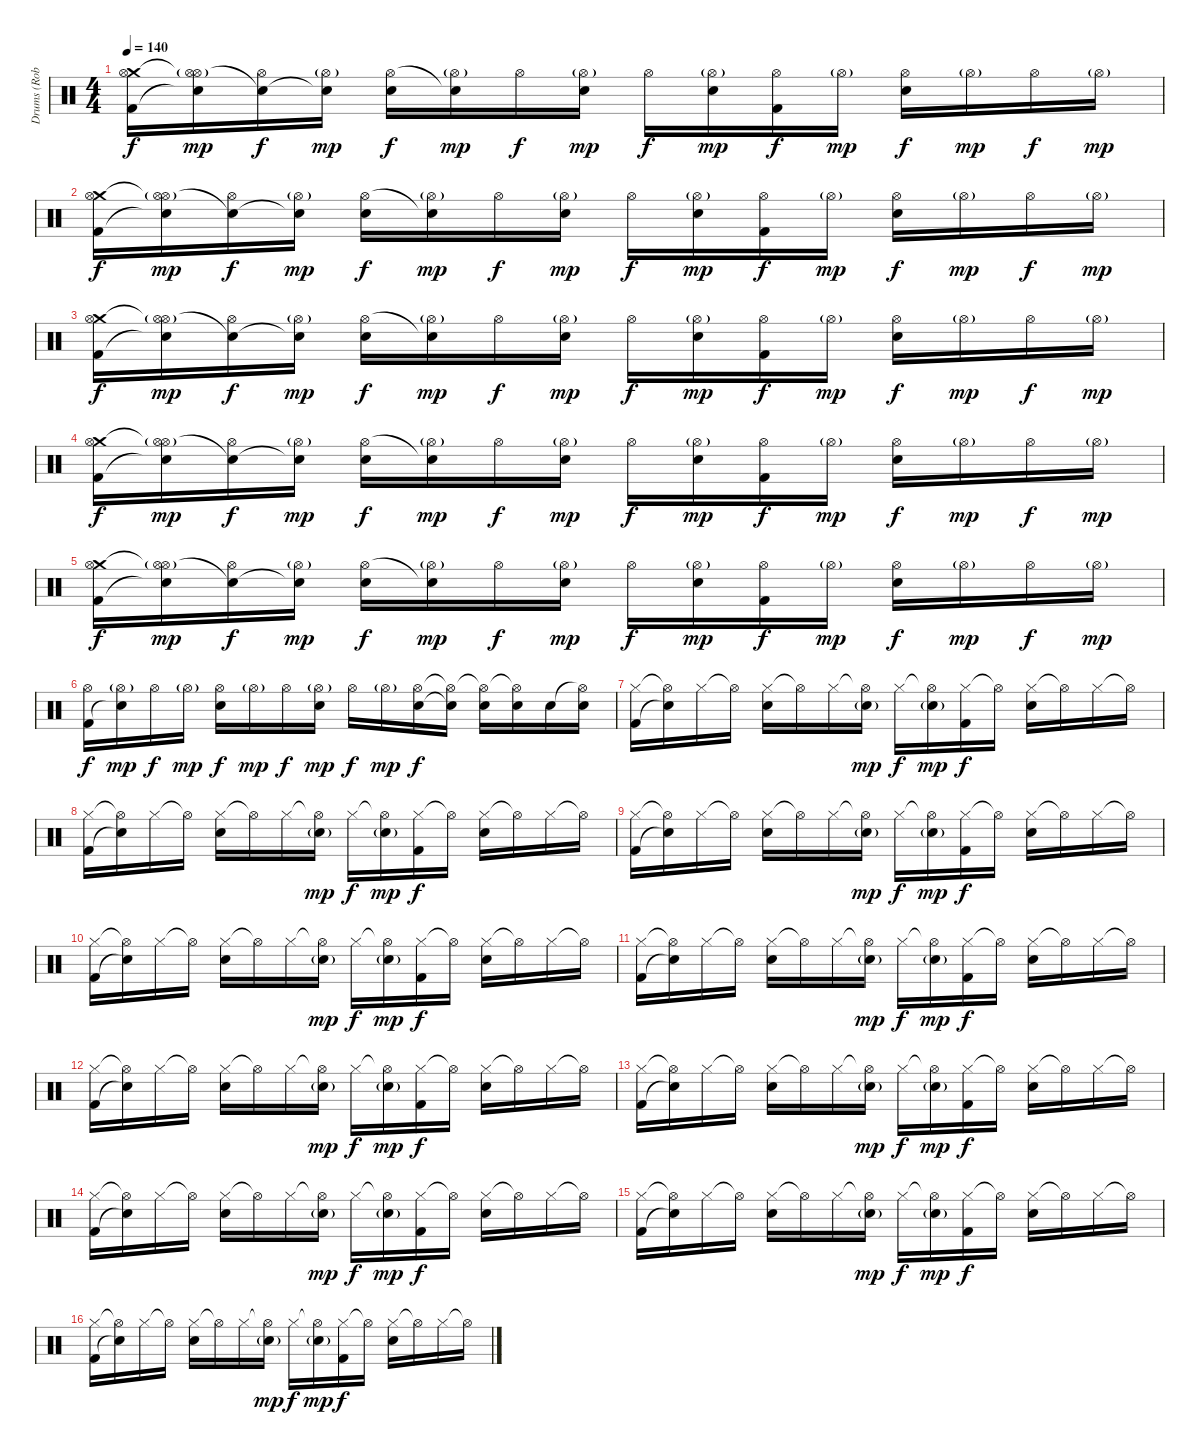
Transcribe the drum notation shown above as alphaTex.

\track ("Drums (Rob Bourdon)" "Drums (Rob") {instrument percussion}
\staff {score}
\articulation defaults
\ts (4 4)
\tempo 140
\clef neutral
\ks c
("Crash medium (hit)" "Hi-Hat (open)" "Kick (hit) 2").16{dy f volume 14} ("Hi-Hat (open)"{t} "Hi-Hat (open)"{g} "Snare (hit)"{t}).16{dy mp} ("Snare (hit)"{t} "Hi-Hat (open)").16{dy f} ("Snare (hit)"{t} "Hi-Hat (open)"{g}).16{dy mp} ("Hi-Hat (open)" "Electric Snare (hit)").16{dy f} ("Snare (hit)"{t} "Hi-Hat (open)"{g}).16{dy mp} "Hi-Hat (open)".16{dy f} ("Hi-Hat (open)"{g} "Electric Snare (hit)").16{dy mp} "Hi-Hat (open)".16{dy f} ("Hi-Hat (open)"{g} "Electric Snare (hit)").16{dy mp} ("Hi-Hat (open)" "Kick (hit) 2").16{dy f} "Hi-Hat (open)"{g}.16{dy mp} ("Hi-Hat (open)" "Electric Snare (hit)").16{dy f} "Hi-Hat (open)"{g}.16{dy mp} "Hi-Hat (open)".16{dy f} "Hi-Hat (open)"{g}.16{dy mp} |
("Crash medium (hit)" "Hi-Hat (open)" "Kick (hit) 2").16{dy f volume 14} ("Hi-Hat (open)"{t} "Hi-Hat (open)"{g} "Snare (hit)"{t}).16{dy mp} ("Snare (hit)"{t} "Hi-Hat (open)").16{dy f} ("Snare (hit)"{t} "Hi-Hat (open)"{g}).16{dy mp} ("Hi-Hat (open)" "Electric Snare (hit)").16{dy f} ("Snare (hit)"{t} "Hi-Hat (open)"{g}).16{dy mp} "Hi-Hat (open)".16{dy f} ("Hi-Hat (open)"{g} "Electric Snare (hit)").16{dy mp} "Hi-Hat (open)".16{dy f} ("Hi-Hat (open)"{g} "Electric Snare (hit)").16{dy mp} ("Hi-Hat (open)" "Kick (hit) 2").16{dy f} "Hi-Hat (open)"{g}.16{dy mp} ("Hi-Hat (open)" "Electric Snare (hit)").16{dy f} "Hi-Hat (open)"{g}.16{dy mp} "Hi-Hat (open)".16{dy f} "Hi-Hat (open)"{g}.16{dy mp} |
("Crash medium (hit)" "Hi-Hat (open)" "Kick (hit) 2").16{dy f volume 14} ("Hi-Hat (open)"{t} "Hi-Hat (open)"{g} "Snare (hit)"{t}).16{dy mp} ("Snare (hit)"{t} "Hi-Hat (open)").16{dy f} ("Snare (hit)"{t} "Hi-Hat (open)"{g}).16{dy mp} ("Hi-Hat (open)" "Electric Snare (hit)").16{dy f} ("Snare (hit)"{t} "Hi-Hat (open)"{g}).16{dy mp} "Hi-Hat (open)".16{dy f} ("Hi-Hat (open)"{g} "Electric Snare (hit)").16{dy mp} "Hi-Hat (open)".16{dy f} ("Hi-Hat (open)"{g} "Electric Snare (hit)").16{dy mp} ("Hi-Hat (open)" "Kick (hit) 2").16{dy f} "Hi-Hat (open)"{g}.16{dy mp} ("Hi-Hat (open)" "Electric Snare (hit)").16{dy f} "Hi-Hat (open)"{g}.16{dy mp} "Hi-Hat (open)".16{dy f} "Hi-Hat (open)"{g}.16{dy mp} |
("Crash medium (hit)" "Hi-Hat (open)" "Kick (hit) 2").16{dy f volume 14} ("Hi-Hat (open)"{t} "Hi-Hat (open)"{g} "Snare (hit)"{t}).16{dy mp} ("Snare (hit)"{t} "Hi-Hat (open)").16{dy f} ("Snare (hit)"{t} "Hi-Hat (open)"{g}).16{dy mp} ("Hi-Hat (open)" "Electric Snare (hit)").16{dy f} ("Snare (hit)"{t} "Hi-Hat (open)"{g}).16{dy mp} "Hi-Hat (open)".16{dy f} ("Hi-Hat (open)"{g} "Electric Snare (hit)").16{dy mp} "Hi-Hat (open)".16{dy f} ("Hi-Hat (open)"{g} "Electric Snare (hit)").16{dy mp} ("Hi-Hat (open)" "Kick (hit) 2").16{dy f} "Hi-Hat (open)"{g}.16{dy mp} ("Hi-Hat (open)" "Electric Snare (hit)").16{dy f} "Hi-Hat (open)"{g}.16{dy mp} "Hi-Hat (open)".16{dy f} "Hi-Hat (open)"{g}.16{dy mp} |
("Crash medium (hit)" "Hi-Hat (open)" "Kick (hit) 2").16{dy f volume 14} ("Hi-Hat (open)"{t} "Hi-Hat (open)"{g} "Snare (hit)"{t}).16{dy mp} ("Snare (hit)"{t} "Hi-Hat (open)").16{dy f} ("Snare (hit)"{t} "Hi-Hat (open)"{g}).16{dy mp} ("Hi-Hat (open)" "Electric Snare (hit)").16{dy f} ("Snare (hit)"{t} "Hi-Hat (open)"{g}).16{dy mp} "Hi-Hat (open)".16{dy f} ("Hi-Hat (open)"{g} "Electric Snare (hit)").16{dy mp} "Hi-Hat (open)".16{dy f} ("Hi-Hat (open)"{g} "Electric Snare (hit)").16{dy mp} ("Hi-Hat (open)" "Kick (hit) 2").16{dy f} "Hi-Hat (open)"{g}.16{dy mp} ("Hi-Hat (open)" "Electric Snare (hit)").16{dy f} "Hi-Hat (open)"{g}.16{dy mp} "Hi-Hat (open)".16{dy f} "Hi-Hat (open)"{g}.16{dy mp} |
("Hi-Hat (open)" "Kick (hit) 2").16{dy f volume 14} ("Hi-Hat (open)"{g} "Snare (hit)"{t}).16{dy mp} "Hi-Hat (open)".16{dy f} "Hi-Hat (open)"{g}.16{dy mp} ("Hi-Hat (open)" "Electric Snare (hit)").16{dy f} "Hi-Hat (open)"{g}.16{dy mp} "Hi-Hat (open)".16{dy f} ("Hi-Hat (open)"{g} "Electric Snare (hit)").16{dy mp} "Hi-Hat (open)".16{dy f} "Hi-Hat (open)"{g}.16{dy mp} ("Hi-Hat (open)" "Electric Snare (hit)").16{dy f} ("Hi-Hat (open)"{t} "Snare (hit)"{t}).16 ("Hi-Hat (open)"{t} "Electric Snare (hit)").16 ("Hi-Hat (open)"{t} "Electric Snare (hit)").16 "Electric Snare (hit)".16 ("Hi-Hat (open)"{t} "Electric Snare (hit)").16 |
("Hi-Hat (closed)" "Kick (hit) 2").16{volume 14} ("Hi-Hat (open)"{t} "Snare (hit)"{t}).16 "Hi-Hat (closed)".16 "Hi-Hat (open)"{t}.16 ("Hi-Hat (closed)" "Electric Snare (hit)").16 "Hi-Hat (open)"{t}.16 "Hi-Hat (closed)".16 ("Hi-Hat (open)"{t} "Electric Snare (hit)"{g}).16{dy mp} "Hi-Hat (closed)".16{dy f} ("Hi-Hat (open)"{t} "Electric Snare (hit)"{g}).16{dy mp} ("Hi-Hat (closed)" "Kick (hit) 2").16{dy f} "Hi-Hat (open)"{t}.16 ("Hi-Hat (closed)" "Electric Snare (hit)").16 "Hi-Hat (open)"{t}.16 "Hi-Hat (closed)".16 "Hi-Hat (open)"{t}.16 |
("Hi-Hat (closed)" "Kick (hit) 2").16{volume 14} ("Hi-Hat (open)"{t} "Snare (hit)"{t}).16 "Hi-Hat (closed)".16 "Hi-Hat (open)"{t}.16 ("Hi-Hat (closed)" "Electric Snare (hit)").16 "Hi-Hat (open)"{t}.16 "Hi-Hat (closed)".16 ("Hi-Hat (open)"{t} "Electric Snare (hit)"{g}).16{dy mp} "Hi-Hat (closed)".16{dy f} ("Hi-Hat (open)"{t} "Electric Snare (hit)"{g}).16{dy mp} ("Hi-Hat (closed)" "Kick (hit) 2").16{dy f} "Hi-Hat (open)"{t}.16 ("Hi-Hat (closed)" "Electric Snare (hit)").16 "Hi-Hat (open)"{t}.16 "Hi-Hat (closed)".16 "Hi-Hat (open)"{t}.16 |
("Hi-Hat (closed)" "Kick (hit) 2").16{volume 14} ("Hi-Hat (open)"{t} "Snare (hit)"{t}).16 "Hi-Hat (closed)".16 "Hi-Hat (open)"{t}.16 ("Hi-Hat (closed)" "Electric Snare (hit)").16 "Hi-Hat (open)"{t}.16 "Hi-Hat (closed)".16 ("Hi-Hat (open)"{t} "Electric Snare (hit)"{g}).16{dy mp} "Hi-Hat (closed)".16{dy f} ("Hi-Hat (open)"{t} "Electric Snare (hit)"{g}).16{dy mp} ("Hi-Hat (closed)" "Kick (hit) 2").16{dy f} "Hi-Hat (open)"{t}.16 ("Hi-Hat (closed)" "Electric Snare (hit)").16 "Hi-Hat (open)"{t}.16 "Hi-Hat (closed)".16 "Hi-Hat (open)"{t}.16 |
("Hi-Hat (closed)" "Kick (hit) 2").16{volume 14} ("Hi-Hat (open)"{t} "Snare (hit)"{t}).16 "Hi-Hat (closed)".16 "Hi-Hat (open)"{t}.16 ("Hi-Hat (closed)" "Electric Snare (hit)").16 "Hi-Hat (open)"{t}.16 "Hi-Hat (closed)".16 ("Hi-Hat (open)"{t} "Electric Snare (hit)"{g}).16{dy mp} "Hi-Hat (closed)".16{dy f} ("Hi-Hat (open)"{t} "Electric Snare (hit)"{g}).16{dy mp} ("Hi-Hat (closed)" "Kick (hit) 2").16{dy f} "Hi-Hat (open)"{t}.16 ("Hi-Hat (closed)" "Electric Snare (hit)").16 "Hi-Hat (open)"{t}.16 "Hi-Hat (closed)".16 "Hi-Hat (open)"{t}.16 |
("Hi-Hat (closed)" "Kick (hit) 2").16{volume 14} ("Hi-Hat (open)"{t} "Snare (hit)"{t}).16 "Hi-Hat (closed)".16 "Hi-Hat (open)"{t}.16 ("Hi-Hat (closed)" "Electric Snare (hit)").16 "Hi-Hat (open)"{t}.16 "Hi-Hat (closed)".16 ("Hi-Hat (open)"{t} "Electric Snare (hit)"{g}).16{dy mp} "Hi-Hat (closed)".16{dy f} ("Hi-Hat (open)"{t} "Electric Snare (hit)"{g}).16{dy mp} ("Hi-Hat (closed)" "Kick (hit) 2").16{dy f} "Hi-Hat (open)"{t}.16 ("Hi-Hat (closed)" "Electric Snare (hit)").16 "Hi-Hat (open)"{t}.16 "Hi-Hat (closed)".16 "Hi-Hat (open)"{t}.16 |
("Hi-Hat (closed)" "Kick (hit) 2").16{volume 14} ("Hi-Hat (open)"{t} "Snare (hit)"{t}).16 "Hi-Hat (closed)".16 "Hi-Hat (open)"{t}.16 ("Hi-Hat (closed)" "Electric Snare (hit)").16 "Hi-Hat (open)"{t}.16 "Hi-Hat (closed)".16 ("Hi-Hat (open)"{t} "Electric Snare (hit)"{g}).16{dy mp} "Hi-Hat (closed)".16{dy f} ("Hi-Hat (open)"{t} "Electric Snare (hit)"{g}).16{dy mp} ("Hi-Hat (closed)" "Kick (hit) 2").16{dy f} "Hi-Hat (open)"{t}.16 ("Hi-Hat (closed)" "Electric Snare (hit)").16 "Hi-Hat (open)"{t}.16 "Hi-Hat (closed)".16 "Hi-Hat (open)"{t}.16 |
("Hi-Hat (closed)" "Kick (hit) 2").16{volume 14} ("Hi-Hat (open)"{t} "Snare (hit)"{t}).16 "Hi-Hat (closed)".16 "Hi-Hat (open)"{t}.16 ("Hi-Hat (closed)" "Electric Snare (hit)").16 "Hi-Hat (open)"{t}.16 "Hi-Hat (closed)".16 ("Hi-Hat (open)"{t} "Electric Snare (hit)"{g}).16{dy mp} "Hi-Hat (closed)".16{dy f} ("Hi-Hat (open)"{t} "Electric Snare (hit)"{g}).16{dy mp} ("Hi-Hat (closed)" "Kick (hit) 2").16{dy f} "Hi-Hat (open)"{t}.16 ("Hi-Hat (closed)" "Electric Snare (hit)").16 "Hi-Hat (open)"{t}.16 "Hi-Hat (closed)".16 "Hi-Hat (open)"{t}.16 |
("Hi-Hat (closed)" "Kick (hit) 2").16{volume 14} ("Hi-Hat (open)"{t} "Snare (hit)"{t}).16 "Hi-Hat (closed)".16 "Hi-Hat (open)"{t}.16 ("Hi-Hat (closed)" "Electric Snare (hit)").16 "Hi-Hat (open)"{t}.16 "Hi-Hat (closed)".16 ("Hi-Hat (open)"{t} "Electric Snare (hit)"{g}).16{dy mp} "Hi-Hat (closed)".16{dy f} ("Hi-Hat (open)"{t} "Electric Snare (hit)"{g}).16{dy mp} ("Hi-Hat (closed)" "Kick (hit) 2").16{dy f} "Hi-Hat (open)"{t}.16 ("Hi-Hat (closed)" "Electric Snare (hit)").16 "Hi-Hat (open)"{t}.16 "Hi-Hat (closed)".16 "Hi-Hat (open)"{t}.16 |
("Hi-Hat (closed)" "Kick (hit) 2").16{volume 14} ("Hi-Hat (open)"{t} "Snare (hit)"{t}).16 "Hi-Hat (closed)".16 "Hi-Hat (open)"{t}.16 ("Hi-Hat (closed)" "Electric Snare (hit)").16 "Hi-Hat (open)"{t}.16 "Hi-Hat (closed)".16 ("Hi-Hat (open)"{t} "Electric Snare (hit)"{g}).16{dy mp} "Hi-Hat (closed)".16{dy f} ("Hi-Hat (open)"{t} "Electric Snare (hit)"{g}).16{dy mp} ("Hi-Hat (closed)" "Kick (hit) 2").16{dy f} "Hi-Hat (open)"{t}.16 ("Hi-Hat (closed)" "Electric Snare (hit)").16 "Hi-Hat (open)"{t}.16 "Hi-Hat (closed)".16 "Hi-Hat (open)"{t}.16 |
("Hi-Hat (closed)" "Kick (hit) 2").16{volume 14} ("Hi-Hat (open)"{t} "Snare (hit)"{t}).16 "Hi-Hat (closed)".16 "Hi-Hat (open)"{t}.16 ("Hi-Hat (closed)" "Electric Snare (hit)").16 "Hi-Hat (open)"{t}.16 "Hi-Hat (closed)".16 ("Hi-Hat (open)"{t} "Electric Snare (hit)"{g}).16{dy mp} "Hi-Hat (closed)".16{dy f} ("Hi-Hat (open)"{t} "Electric Snare (hit)"{g}).16{dy mp} ("Hi-Hat (closed)" "Kick (hit) 2").16{dy f} "Hi-Hat (open)"{t}.16 ("Hi-Hat (closed)" "Electric Snare (hit)").16 "Hi-Hat (open)"{t}.16 "Hi-Hat (closed)".16 "Hi-Hat (open)"{t}.16
